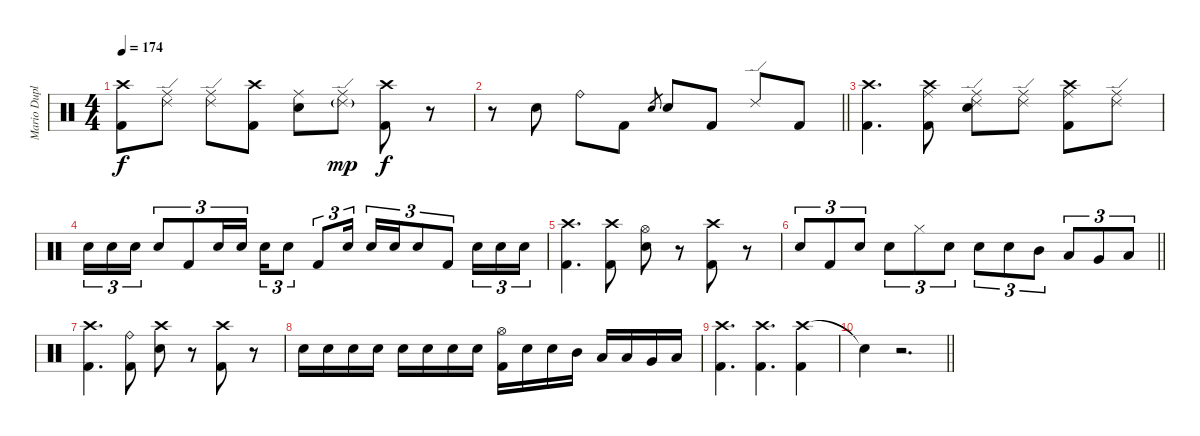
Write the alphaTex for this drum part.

\track ("Mario Duplantier - DRUMS" "Mario Dupl") {instrument percussion}
\staff {score}
\articulation defaults
\ts (4 4)
\tempo 174
\clef neutral
\ks c
("Crash high (hit)" "Kick (hit) 2").8{dy f} ("Ride (middle)" "Ride (edge) 2").8 ("Ride (middle)" "Ride (edge) 2").8 ("Crash high (hit)" "Kick (hit) 2").8 ("Ride (middle)" "Electric Snare (hit)").8 ("Ride (middle)" "Ride (edge) 2"{g}).8{dy mp} ("Crash high (hit)" "Kick (hit) 2").8{dy f} r.8 |
\barLineRight lightlight
r.8 "Electric Snare (hit)".8 "Ride (bell)".8 "Kick (hit) 2".8 "Electric Snare (hit)".8{gr} "Electric Snare (hit)".8 "Kick (hit) 2".8 "Ride (edge) 2".8 "Kick (hit) 2".8 |
\section ("" "")
("Crash high (hit)" "Kick (hit) 2").4{d} ("Crash high (hit)" "Ride (middle)" "Kick (hit) 2").8 ("Ride (edge) 2" "Ride (middle)" "Electric Snare (hit)").8 ("Ride (edge) 2" "Ride (middle)").8 ("Ride (middle)" "Crash high (hit)" "Kick (hit) 2").8 ("Ride (middle)" "Ride (edge) 2").8 |
"Electric Snare (hit)".16{tu (3 2)} "Electric Snare (hit)".16{tu (3 2)} "Electric Snare (hit)".16{tu (3 2)} "Electric Snare (hit)".8{tu (3 2)} "Kick (hit) 2".8{tu (3 2)} "Electric Snare (hit)".16{tu (3 2)} "Electric Snare (hit)".16{tu (3 2) beam splitsecondary} "Electric Snare (hit)".16{tu (3 2)} "Electric Snare (hit)".8{tu (3 2)} "Kick (hit) 2".8{tu (3 2)} "Electric Snare (hit)".16{tu (3 2) beam splitsecondary} "Electric Snare (hit)".16{tu (3 2)} "Electric Snare (hit)".16{tu (3 2)} "Electric Snare (hit)".8{tu (3 2)} "Kick (hit) 2".8{tu (3 2)} "Electric Snare (hit)".16{tu (3 2)} "Electric Snare (hit)".16{tu (3 2)} "Electric Snare (hit)".16{tu (3 2)} |
("Crash high (hit)" "Kick (hit) 2").4{d} ("Crash high (hit)" "Kick (hit) 2").8 ("Hi-Hat (open)" "Electric Snare (hit)").8 r.8 ("Crash high (hit)" "Kick (hit) 2").8 r.8 |
\barLineRight lightlight "Electric Snare (hit)".8{tu (3 2)} "Kick (hit) 2".8{tu (3 2)} "Electric Snare (hit)".8{tu (3 2)} "Electric Snare (hit)".8{tu (3 2)} "Hi-Hat (closed)".8{tu (3 2)} "Electric Snare (hit)".8{tu (3 2)} "Electric Snare (hit)".8{tu (3 2)} "Electric Snare (hit)".8{tu (3 2)} "Mid Tom (hit)".8{tu (3 2)} "Low Tom (hit)".8{tu (3 2)} "Very Low Tom (hit)".8{tu (3 2)} "Low Floor Tom (hit)".8{tu (3 2)}
|
("Crash high (hit)" "Kick (hit) 2").4{d} ("Ride (bell)" "Kick (hit) 2").8 ("Crash high (hit)" "Electric Snare (hit)").8 r.8 ("Crash high (hit)" "Kick (hit) 2").8 r.8 |
"Electric Snare (hit)".16 "Electric Snare (hit)".16 "Electric Snare (hit)".16 "Electric Snare (hit)".16 "Electric Snare (hit)".16 "Electric Snare (hit)".16 "Electric Snare (hit)".16 "Electric Snare (hit)".16 ("Hi-Hat (open)" "Kick (hit) 2").16 "Electric Snare (hit)".16 "Electric Snare (hit)".16 "Mid Tom (hit)".16 "Low Tom (hit)".16 "Low Tom (hit)".16 "Very Low Tom (hit)".16 "Low Floor Tom (hit)".16 |
("Crash high (hit)" "Kick (hit) 2").4{d} ("Crash high (hit)" "Kick (hit) 2").4{d} ("Crash high (hit)" "Kick (hit) 2").4 |
\barLineRight lightlight "Snare (hit)"{t}.4
r.2{d}
